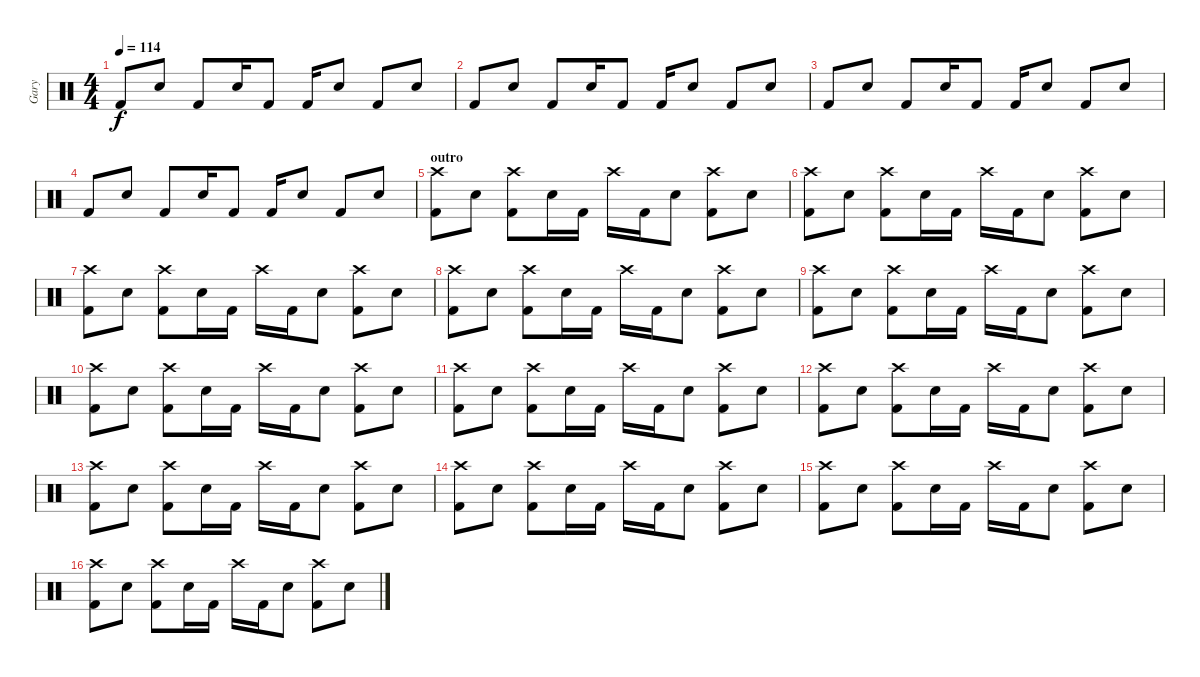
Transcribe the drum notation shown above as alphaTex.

\track ("Gary" "Gary") {instrument percussion}
\staff {score}
\articulation defaults
\ts (4 4)
\tempo 114
\clef neutral
\ks c "Kick (hit) 2".8{dy f} "Snare (hit) 2".8 "Kick (hit) 2".8 "Snare (hit) 2".16 "Kick (hit) 2".8 "Kick (hit) 2".16 "Snare (hit) 2".8 "Kick (hit) 2".8 "Snare (hit) 2".8
|
"Kick (hit) 2".8 "Snare (hit) 2".8 "Kick (hit) 2".8 "Snare (hit) 2".16 "Kick (hit) 2".8 "Kick (hit) 2".16 "Snare (hit) 2".8 "Kick (hit) 2".8 "Snare (hit) 2".8 |
"Kick (hit) 2".8 "Snare (hit) 2".8 "Kick (hit) 2".8 "Snare (hit) 2".16 "Kick (hit) 2".8 "Kick (hit) 2".16 "Snare (hit) 2".8 "Kick (hit) 2".8 "Snare (hit) 2".8 |
"Kick (hit) 2".8 "Snare (hit) 2".8 "Kick (hit) 2".8 "Snare (hit) 2".16 "Kick (hit) 2".8 "Kick (hit) 2".16 "Snare (hit) 2".8 "Kick (hit) 2".8 "Snare (hit) 2".8 |
\section ("" "outro")
("Crash high (hit)" "Kick (hit) 2").8 "Snare (hit) 2".8 ("Crash high (hit)" "Kick (hit) 2").8 "Snare (hit) 2".16 "Kick (hit) 2".16 "Crash high (hit)".16 "Kick (hit) 2".16 "Snare (hit) 2".8 ("Crash high (hit)" "Kick (hit) 2").8 "Snare (hit) 2".8 |
("Crash high (hit)" "Kick (hit) 2").8 "Snare (hit) 2".8 ("Crash high (hit)" "Kick (hit) 2").8 "Snare (hit) 2".16 "Kick (hit) 2".16 "Crash high (hit)".16 "Kick (hit) 2".16 "Snare (hit) 2".8 ("Crash high (hit)" "Kick (hit) 2").8 "Snare (hit) 2".8 |
("Crash high (hit)" "Kick (hit) 2").8 "Snare (hit) 2".8 ("Crash high (hit)" "Kick (hit) 2").8 "Snare (hit) 2".16 "Kick (hit) 2".16 "Crash high (hit)".16 "Kick (hit) 2".16 "Snare (hit) 2".8 ("Crash high (hit)" "Kick (hit) 2").8 "Snare (hit) 2".8 |
("Crash high (hit)" "Kick (hit) 2").8 "Snare (hit) 2".8 ("Crash high (hit)" "Kick (hit) 2").8 "Snare (hit) 2".16 "Kick (hit) 2".16 "Crash high (hit)".16 "Kick (hit) 2".16 "Snare (hit) 2".8 ("Crash high (hit)" "Kick (hit) 2").8 "Snare (hit) 2".8 |
("Crash high (hit)" "Kick (hit) 2").8 "Snare (hit) 2".8 ("Crash high (hit)" "Kick (hit) 2").8 "Snare (hit) 2".16 "Kick (hit) 2".16 "Crash high (hit)".16 "Kick (hit) 2".16 "Snare (hit) 2".8 ("Crash high (hit)" "Kick (hit) 2").8 "Snare (hit) 2".8 |
("Crash high (hit)" "Kick (hit) 2").8 "Snare (hit) 2".8 ("Crash high (hit)" "Kick (hit) 2").8 "Snare (hit) 2".16 "Kick (hit) 2".16 "Crash high (hit)".16 "Kick (hit) 2".16 "Snare (hit) 2".8 ("Crash high (hit)" "Kick (hit) 2").8 "Snare (hit) 2".8 |
("Crash high (hit)" "Kick (hit) 2").8 "Snare (hit) 2".8 ("Crash high (hit)" "Kick (hit) 2").8 "Snare (hit) 2".16 "Kick (hit) 2".16 "Crash high (hit)".16 "Kick (hit) 2".16 "Snare (hit) 2".8 ("Crash high (hit)" "Kick (hit) 2").8 "Snare (hit) 2".8 |
("Crash high (hit)" "Kick (hit) 2").8 "Snare (hit) 2".8 ("Crash high (hit)" "Kick (hit) 2").8 "Snare (hit) 2".16 "Kick (hit) 2".16 "Crash high (hit)".16 "Kick (hit) 2".16 "Snare (hit) 2".8 ("Crash high (hit)" "Kick (hit) 2").8 "Snare (hit) 2".8 |
("Crash high (hit)" "Kick (hit) 2").8 "Snare (hit) 2".8 ("Crash high (hit)" "Kick (hit) 2").8 "Snare (hit) 2".16 "Kick (hit) 2".16 "Crash high (hit)".16 "Kick (hit) 2".16 "Snare (hit) 2".8 ("Crash high (hit)" "Kick (hit) 2").8 "Snare (hit) 2".8 |
("Crash high (hit)" "Kick (hit) 2").8 "Snare (hit) 2".8 ("Crash high (hit)" "Kick (hit) 2").8 "Snare (hit) 2".16 "Kick (hit) 2".16 "Crash high (hit)".16 "Kick (hit) 2".16 "Snare (hit) 2".8 ("Crash high (hit)" "Kick (hit) 2").8 "Snare (hit) 2".8 |
("Crash high (hit)" "Kick (hit) 2").8 "Snare (hit) 2".8 ("Crash high (hit)" "Kick (hit) 2").8 "Snare (hit) 2".16 "Kick (hit) 2".16 "Crash high (hit)".16 "Kick (hit) 2".16 "Snare (hit) 2".8 ("Crash high (hit)" "Kick (hit) 2").8 "Snare (hit) 2".8 |
("Crash high (hit)" "Kick (hit) 2").8 "Snare (hit) 2".8 ("Crash high (hit)" "Kick (hit) 2").8 "Snare (hit) 2".16 "Kick (hit) 2".16 "Crash high (hit)".16 "Kick (hit) 2".16 "Snare (hit) 2".8 ("Crash high (hit)" "Kick (hit) 2").8 "Snare (hit) 2".8
